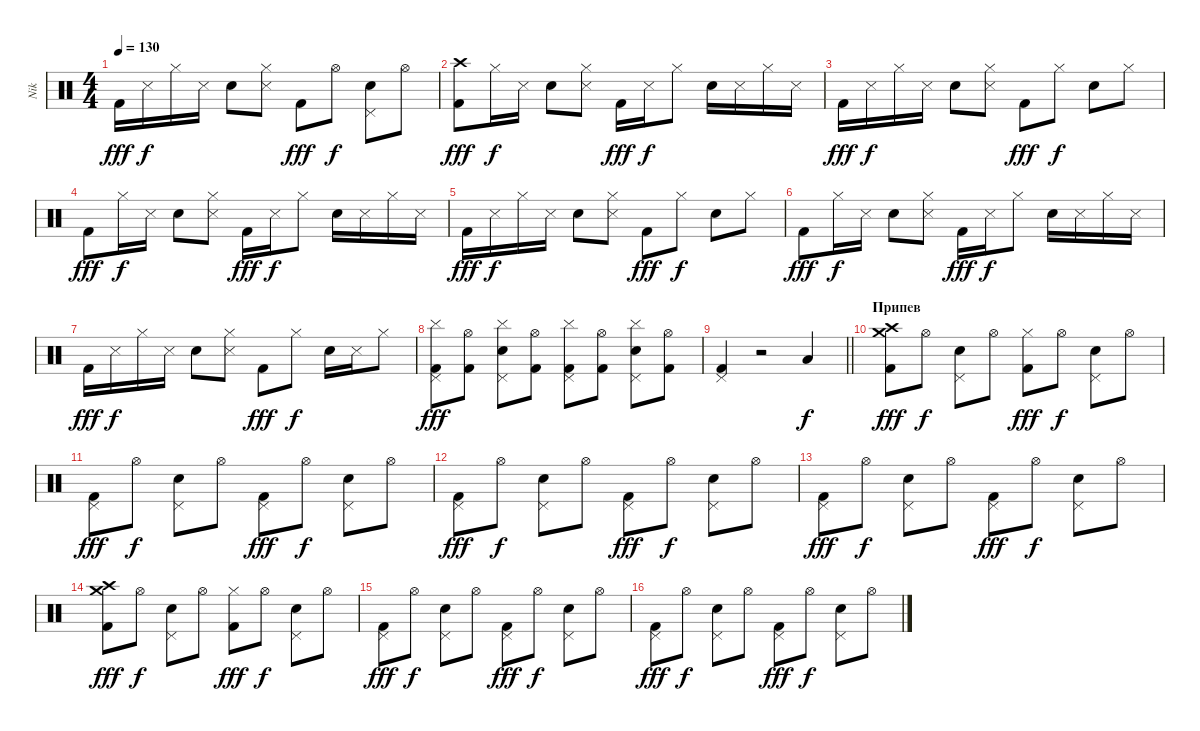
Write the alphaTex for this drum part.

\track ("Nik" "Nik") {instrument percussion}
\staff {score}
\articulation defaults
\ts (4 4)
\tempo 130
\clef neutral
\ks c "Kick (hit) 2".16{dy fff} "Snare (side stick) 3".16{dy f} "Hi-Hat (closed)".16 "Snare (side stick) 3".16 "Electric Snare (hit)".8
("Hi-Hat (closed)" "Snare (side stick) 3").8 "Kick (hit) 2".8{dy fff} "Hi-Hat (open)".8{dy f} ("Pedal Hi-Hat (hit)" "Electric Snare (hit)").8 "Hi-Hat (open)".8 |
("Crash high (hit)" "Kick (hit) 2").8{dy fff} "Hi-Hat (closed)".16{dy f} "Snare (side stick) 3".16 "Electric Snare (hit)".8 ("Hi-Hat (closed)" "Snare (side stick) 3").8 "Kick (hit) 2".16{dy fff} "Snare (side stick) 3".16{dy f} "Hi-Hat (closed)".8 "Electric Snare (hit)".16 "Snare (side stick) 3".16 "Hi-Hat (closed)".16 "Snare (side stick) 3".16 |
"Kick (hit) 2".16{dy fff} "Snare (side stick) 3".16{dy f} "Hi-Hat (closed)".16 "Snare (side stick) 3".16 "Electric Snare (hit)".8 ("Hi-Hat (closed)" "Snare (side stick) 3").8 "Kick (hit) 2".8{dy fff} "Hi-Hat (closed)".8{dy f} "Electric Snare (hit)".8 "Hi-Hat (closed)".8 |
"Kick (hit) 2".8{dy fff} "Hi-Hat (closed)".16{dy f} "Snare (side stick) 3".16 "Electric Snare (hit)".8 ("Hi-Hat (closed)" "Snare (side stick) 3").8 "Kick (hit) 2".16{dy fff} "Snare (side stick) 3".16{dy f} "Hi-Hat (closed)".8 "Electric Snare (hit)".16 "Snare (side stick) 3".16 "Hi-Hat (closed)".16 "Snare (side stick) 3".16 |
"Kick (hit) 2".16{dy fff} "Snare (side stick) 3".16{dy f} "Hi-Hat (closed)".16 "Snare (side stick) 3".16 "Electric Snare (hit)".8 ("Hi-Hat (closed)" "Snare (side stick) 3").8 "Kick (hit) 2".8{dy fff} "Hi-Hat (closed)".8{dy f} "Electric Snare (hit)".8 "Hi-Hat (closed)".8 |
"Kick (hit) 2".8{dy fff} "Hi-Hat (closed)".16{dy f} "Snare (side stick) 3".16 "Electric Snare (hit)".8 ("Hi-Hat (closed)" "Snare (side stick) 3").8 "Kick (hit) 2".16{dy fff} "Snare (side stick) 3".16{dy f} "Hi-Hat (closed)".8 "Electric Snare (hit)".16 "Snare (side stick) 3".16 "Hi-Hat (closed)".16 "Snare (side stick) 3".16 |
"Kick (hit) 2".16{dy fff} "Snare (side stick) 3".16{dy f} "Hi-Hat (closed)".16 "Snare (side stick) 3".16 "Electric Snare (hit)".8 ("Hi-Hat (closed)" "Snare (side stick) 3").8 "Kick (hit) 2".8{dy fff} "Hi-Hat (closed)".8{dy f} "Electric Snare (hit)".16 "Snare (side stick) 3".16 "Hi-Hat (closed)".8 |
("Pedal Hi-Hat (hit)" "Kick (hit) 2" "Cymbal (hit)").8{dy fff} ("Hi-Hat (open)" "Kick (hit) 2").8 ("Pedal Hi-Hat (hit)" "Electric Snare (hit)" "Cymbal (hit)").8 ("Hi-Hat (open)" "Kick (hit) 2").8 ("Pedal Hi-Hat (hit)" "Kick (hit) 2" "Cymbal (hit)").8 ("Hi-Hat (open)" "Kick (hit) 2").8 ("Pedal Hi-Hat (hit)" "Electric Snare (hit)" "Cymbal (hit)").8 ("Hi-Hat (open)" "Kick (hit) 2").8 |
\barLineRight lightlight
("Pedal Hi-Hat (hit)" "Kick (hit) 2").4 r.2 "Low Floor Tom (hit)".4{dy f} |
\section ("" "Припев")
("Crash high (hit)" "Crash medium (hit)" "Kick (hit) 2").8{dy fff} "Hi-Hat (open)".8{dy f} ("Pedal Hi-Hat (hit)" "Electric Snare (hit)").8 "Hi-Hat (open)".8 ("Hi-Hat (closed)" "Kick (hit) 2").8{dy fff} "Hi-Hat (open)".8{dy f} ("Pedal Hi-Hat (hit)" "Electric Snare (hit)").8 "Hi-Hat (open)".8 |
("Pedal Hi-Hat (hit)" "Kick (hit) 2").8{dy fff} "Hi-Hat (open)".8{dy f} ("Pedal Hi-Hat (hit)" "Electric Snare (hit)").8 "Hi-Hat (open)".8 ("Pedal Hi-Hat (hit)" "Kick (hit) 2").8{dy fff} "Hi-Hat (open)".8{dy f} ("Pedal Hi-Hat (hit)" "Electric Snare (hit)").8 "Hi-Hat (open)".8 |
("Pedal Hi-Hat (hit)" "Kick (hit) 2").8{dy fff} "Hi-Hat (open)".8{dy f} ("Pedal Hi-Hat (hit)" "Electric Snare (hit)").8 "Hi-Hat (open)".8 ("Pedal Hi-Hat (hit)" "Kick (hit) 2").8{dy fff} "Hi-Hat (open)".8{dy f} ("Pedal Hi-Hat (hit)" "Electric Snare (hit)").8 "Hi-Hat (open)".8 |
("Pedal Hi-Hat (hit)" "Kick (hit) 2").8{dy fff} "Hi-Hat (open)".8{dy f} ("Pedal Hi-Hat (hit)" "Electric Snare (hit)").8 "Hi-Hat (open)".8 ("Pedal Hi-Hat (hit)" "Kick (hit) 2").8{dy fff} "Hi-Hat (open)".8{dy f} ("Pedal Hi-Hat (hit)" "Electric Snare (hit)").8 "Hi-Hat (open)".8 |
("Crash high (hit)" "Crash medium (hit)" "Kick (hit) 2").8{dy fff} "Hi-Hat (open)".8{dy f} ("Pedal Hi-Hat (hit)" "Electric Snare (hit)").8 "Hi-Hat (open)".8 ("Hi-Hat (closed)" "Kick (hit) 2").8{dy fff} "Hi-Hat (open)".8{dy f} ("Pedal Hi-Hat (hit)" "Electric Snare (hit)").8 "Hi-Hat (open)".8 |
("Pedal Hi-Hat (hit)" "Kick (hit) 2").8{dy fff} "Hi-Hat (open)".8{dy f} ("Pedal Hi-Hat (hit)" "Electric Snare (hit)").8 "Hi-Hat (open)".8 ("Pedal Hi-Hat (hit)" "Kick (hit) 2").8{dy fff} "Hi-Hat (open)".8{dy f} ("Pedal Hi-Hat (hit)" "Electric Snare (hit)").8 "Hi-Hat (open)".8 |
("Pedal Hi-Hat (hit)" "Kick (hit) 2").8{dy fff} "Hi-Hat (open)".8{dy f} ("Pedal Hi-Hat (hit)" "Electric Snare (hit)").8 "Hi-Hat (open)".8 ("Pedal Hi-Hat (hit)" "Kick (hit) 2").8{dy fff} "Hi-Hat (open)".8{dy f} ("Pedal Hi-Hat (hit)" "Electric Snare (hit)").8 "Hi-Hat (open)".8
